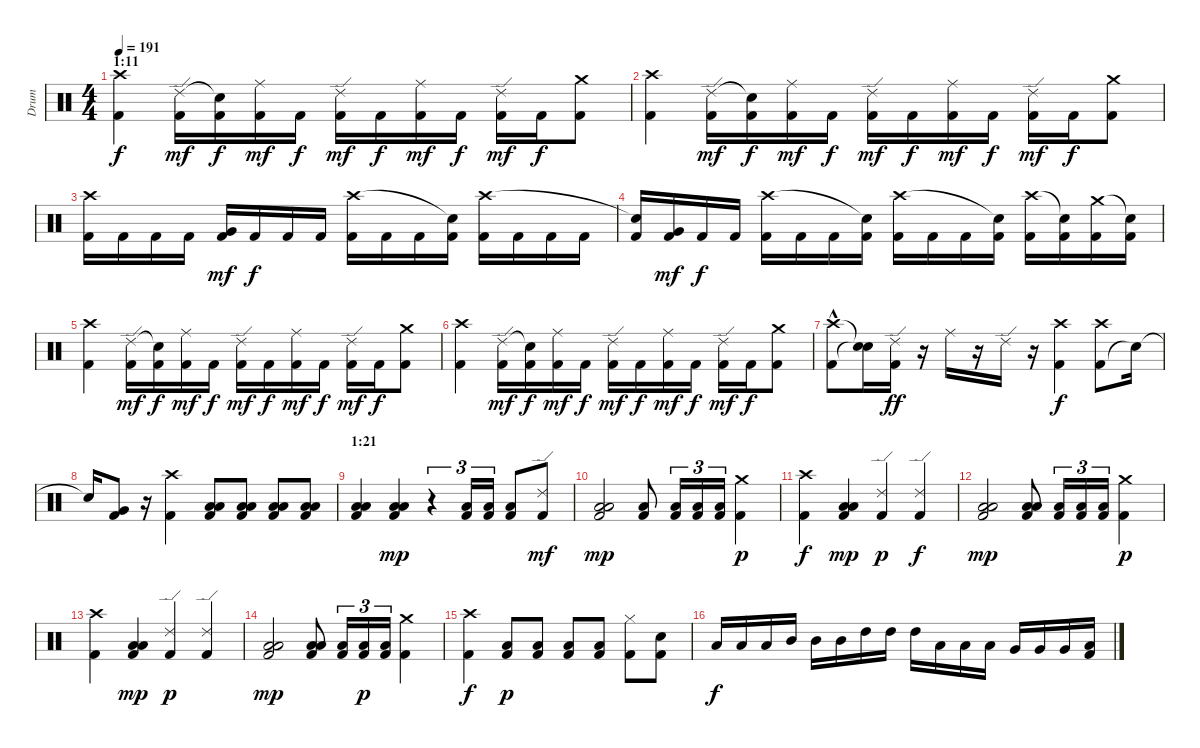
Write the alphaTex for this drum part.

\track ("Drum" "Drum") {instrument percussion}
\staff {score}
\articulation defaults
\ts (4 4)
\section ("" "1:11")
\tempo 191
\clef neutral
\ks c
("Kick (hit) 2" "Crash high (hit)").4{dy f} ("Kick (hit) 2" "Ride (edge) 2").16{dy mf} ("Kick (hit) 2" "Snare (hit)"{t}).16{dy f} ("Kick (hit) 2" "Ride (middle)").16{dy mf} "Kick (hit) 2".16{dy f} ("Kick (hit) 2" "Ride (edge) 2").16{dy mf} "Kick (hit) 2".16{dy f} ("Kick (hit) 2" "Ride (middle)").16{dy mf} "Kick (hit) 2".16{dy f} ("Kick (hit) 2" "Ride (edge) 2").16{dy mf} "Kick (hit) 2".16{dy f} ("Kick (hit) 2" "Crash medium (hit)").8 |
("Kick (hit) 2" "Crash high (hit)").4 ("Kick (hit) 2" "Ride (edge) 2").16{dy mf} ("Kick (hit) 2" "Snare (hit)"{t}).16{dy f} ("Kick (hit) 2" "Ride (middle)").16{dy mf} "Kick (hit) 2".16{dy f} ("Kick (hit) 2" "Ride (edge) 2").16{dy mf} "Kick (hit) 2".16{dy f} ("Kick (hit) 2" "Ride (middle)").16{dy mf} "Kick (hit) 2".16{dy f} ("Kick (hit) 2" "Ride (edge) 2").16{dy mf} "Kick (hit) 2".16{dy f} ("Kick (hit) 2" "Crash medium (hit)").8 |
("Kick (hit) 2" "Crash high (hit)").16 "Kick (hit) 2".16 "Kick (hit) 2".16 "Kick (hit) 2".16 ("Kick (hit) 2" "Very Low Tom (hit)").16{dy mf} "Kick (hit) 2".16{dy f} "Kick (hit) 2".16 "Kick (hit) 2".16 ("Kick (hit) 2" "Crash high (hit)").16 "Kick (hit) 2".16 "Kick (hit) 2".16 ("Kick (hit) 2" "Snare (hit)"{t}).16 ("Kick (hit) 2" "Crash high (hit)").16 "Kick (hit) 2".16 "Kick (hit) 2".16 "Kick (hit) 2".16 |
("Kick (hit) 2" "Snare (hit)"{t}).16 ("Kick (hit) 2" "Very Low Tom (hit)").16{dy mf} "Kick (hit) 2".16{dy f} "Kick (hit) 2".16 ("Kick (hit) 2" "Crash high (hit)").16 "Kick (hit) 2".16 "Kick (hit) 2".16 ("Kick (hit) 2" "Snare (hit)"{t}).16 ("Kick (hit) 2" "Crash high (hit)").16 "Kick (hit) 2".16 "Kick (hit) 2".16 ("Kick (hit) 2" "Snare (hit)"{t}).16 ("Kick (hit) 2" "Crash high (hit)").16 ("Kick (hit) 2" "Snare (hit)"{t}).16 ("Kick (hit) 2" "Crash medium (hit)").16 ("Kick (hit) 2" "Snare (hit)"{t}).16 |
("Kick (hit) 2" "Crash high (hit)").4 ("Kick (hit) 2" "Ride (edge) 2").16{dy mf} ("Kick (hit) 2" "Snare (hit)"{t}).16{dy f} ("Kick (hit) 2" "Ride (middle)").16{dy mf} "Kick (hit) 2".16{dy f} ("Kick (hit) 2" "Ride (edge) 2").16{dy mf} "Kick (hit) 2".16{dy f} ("Kick (hit) 2" "Ride (middle)").16{dy mf} "Kick (hit) 2".16{dy f} ("Kick (hit) 2" "Ride (edge) 2").16{dy mf} "Kick (hit) 2".16{dy f} ("Kick (hit) 2" "Crash medium (hit)").8 |
("Kick (hit) 2" "Crash high (hit)").4 ("Kick (hit) 2" "Ride (edge) 2").16{dy mf} ("Kick (hit) 2" "Snare (hit)"{t}).16{dy f} ("Kick (hit) 2" "Ride (middle)").16{dy mf} "Kick (hit) 2".16{dy f} ("Kick (hit) 2" "Ride (edge) 2").16{dy mf} "Kick (hit) 2".16{dy f} ("Kick (hit) 2" "Ride (middle)").16{dy mf} "Kick (hit) 2".16{dy f} ("Kick (hit) 2" "Ride (edge) 2").16{dy mf} "Kick (hit) 2".16{dy f} ("Kick (hit) 2" "Crash medium (hit)").8 |
("Kick (hit) 2"{hac} "Crash high (hit)").8 ("Snare (hit)"{t} "Snare (hit)"{t}).16 ("Kick (hit) 2" "Ride (edge) 2").16{dy ff} r.16 "Ride (middle)".16 r.16 "Ride (edge) 2".16 r.16 ("Kick (hit) 2" "Crash high (hit)").4{dy f} ("Kick (hit) 2" "Crash high (hit)").8 "Snare (hit)"{t}.16 |
"Snare (hit)"{t}.16 ("Kick (hit) 2" "Very Low Tom (hit)").8 r.16 ("Kick (hit) 2" "Crash high (hit)").4 ("Kick (hit) 2" "Low Floor Tom (hit)" "Low Floor Tom (hit)").8 ("Kick (hit) 2" "Low Floor Tom (hit)" "Low Floor Tom (hit)").8 ("Kick (hit) 2" "Low Floor Tom (hit)" "Low Floor Tom (hit)").8 ("Kick (hit) 2" "Low Floor Tom (hit)" "Low Floor Tom (hit)").8 |
\section ("" "1:21")
("Kick (hit) 2" "Low Floor Tom (hit)" "Low Floor Tom (hit)").4 ("Kick (hit) 2" "Low Floor Tom (hit)" "Low Floor Tom (hit)").4{dy mp} r.4{tu (3 2)} ("Kick (hit) 2" "Low Floor Tom (hit)").16{tu (3 2)} ("Kick (hit) 2" "Low Floor Tom (hit)").16{tu (3 2)} ("Kick (hit) 2" "Low Floor Tom (hit)").8 ("Kick (hit) 2" "Ride (edge) 2").8{dy mf} |
("Kick (hit) 2" "Low Floor Tom (hit)" "Low Floor Tom (hit)").2{dy mp} ("Kick (hit) 2" "Low Floor Tom (hit)").8 ("Kick (hit) 2" "Low Floor Tom (hit)").16{tu (3 2)} ("Kick (hit) 2" "Low Floor Tom (hit)").16{tu (3 2)} ("Kick (hit) 2" "Low Floor Tom (hit)").16{tu (3 2)} ("Kick (hit) 2" "Crash medium (hit)").4{dy p} |
("Kick (hit) 2" "Crash high (hit)").4{dy f} ("Kick (hit) 2" "Low Floor Tom (hit)" "Low Floor Tom (hit)").4{dy mp} ("Kick (hit) 2" "Ride (edge) 2").4{dy p} ("Kick (hit) 2" "Ride (edge) 2").4{dy f} |
("Kick (hit) 2" "Low Floor Tom (hit)" "Low Floor Tom (hit)").2{dy mp} ("Kick (hit) 2" "Low Floor Tom (hit)" "Low Floor Tom (hit)").8 ("Kick (hit) 2" "Low Floor Tom (hit)").16{tu (3 2)} ("Kick (hit) 2" "Low Floor Tom (hit)").16{tu (3 2)} ("Kick (hit) 2" "Low Floor Tom (hit)").16{tu (3 2)} ("Kick (hit) 2" "Crash medium (hit)").4{dy p} |
("Kick (hit) 2" "Crash high (hit)").4 ("Kick (hit) 2" "Low Floor Tom (hit)" "Low Floor Tom (hit)").4{dy mp} ("Kick (hit) 2" "Ride (edge) 2").4{dy p} ("Kick (hit) 2" "Ride (edge) 2").4 |
("Kick (hit) 2" "Low Floor Tom (hit)" "Low Floor Tom (hit)").2{dy mp} ("Kick (hit) 2" "Low Floor Tom (hit)" "Low Floor Tom (hit)").8 ("Kick (hit) 2" "Low Floor Tom (hit)").16{tu (3 2)} ("Kick (hit) 2" "Low Floor Tom (hit)").16{tu (3 2) dy p} ("Kick (hit) 2" "Low Floor Tom (hit)").16{tu (3 2)} ("Kick (hit) 2" "Crash medium (hit)").4 |
("Kick (hit) 2" "Crash high (hit)").4{dy f} ("Kick (hit) 2" "Low Floor Tom (hit)").8{dy p} ("Kick (hit) 2" "Low Floor Tom (hit)").8 ("Kick (hit) 2" "Low Floor Tom (hit)").8 ("Kick (hit) 2" "Low Floor Tom (hit)").8 ("Kick (hit) 2" "Hi-Hat (closed)").8 ("Kick (hit) 2" "Snare (hit) 2").8 |
"Low Tom (hit)".16{dy f} "Low Tom (hit)".16 "Low Tom (hit)".16 "Mid Tom (hit)".16 "Mid Tom (hit)".16 "Mid Tom (hit)".16 "High Tom (hit)".16 "High Tom (hit)".16 "High Tom (hit)".16 "Low Tom (hit)".16 "Low Tom (hit)".16 "Low Tom (hit)".16 "Very Low Tom (hit)".16 "Very Low Tom (hit)".16 "Very Low Tom (hit)".16 ("Kick (hit) 2" "Low Floor Tom (hit)").16
